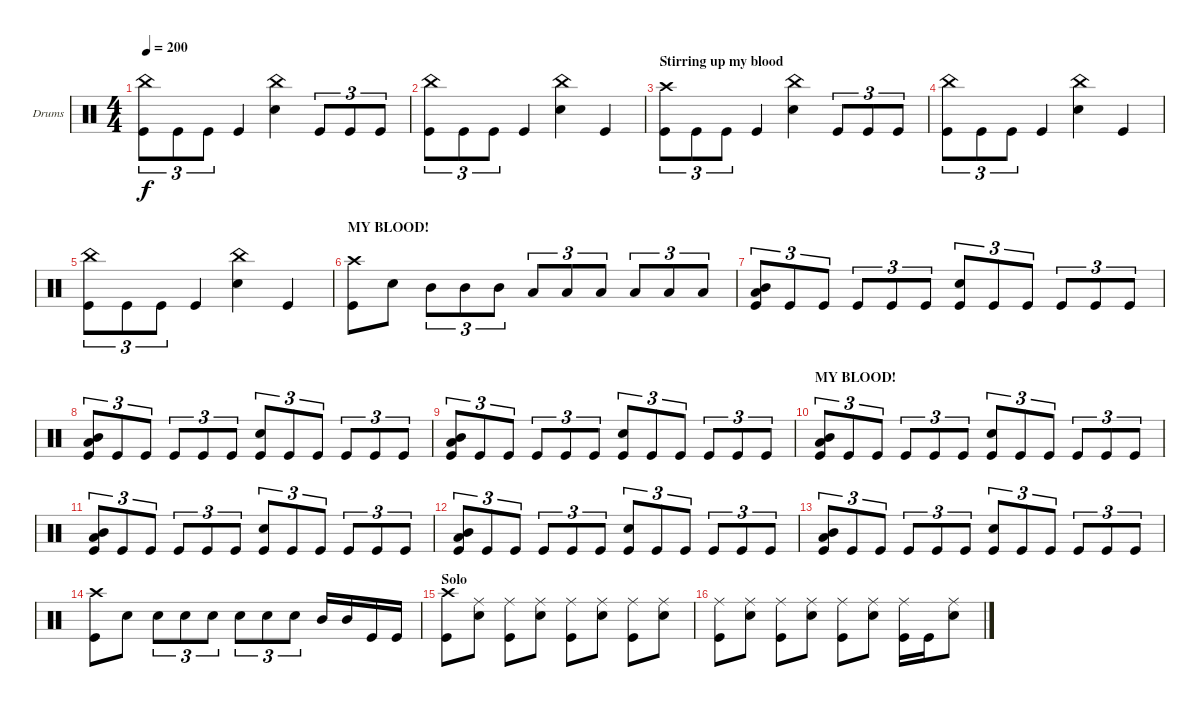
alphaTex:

\defaultSystemsLayout 4
\bracketExtendMode groupsimilarinstruments
\firstSystemTrackNameOrientation horizontal
\otherSystemsTrackNameOrientation horizontal
\track ("Markus Freiwald" "Drums") {instrument percussion}
\staff {score}
\articulation defaults
\ts (4 4)
\tempo 200
\clef neutral
\ks c
("Kick (hit)" "China (hit)").8{tu (3 2) dy f} "Kick (hit)".8{tu (3 2)} "Kick (hit)".8{tu (3 2)} "Kick (hit)".4 ("Snare (hit) 2" "China (hit)").4 "Kick (hit)".8{tu (3 2)} "Kick (hit)".8{tu (3 2)} "Kick (hit)".8{tu (3 2)} |
("Kick (hit)" "China (hit)").8{tu (3 2)} "Kick (hit)".8{tu (3 2)} "Kick (hit)".8{tu (3 2)} "Kick (hit)".4 ("Snare (hit) 2" "China (hit)").4 "Kick (hit)".4 |
\section ("" "Stirring up my blood")
("Crash high (hit)" "Kick (hit)").8{tu (3 2)} "Kick (hit)".8{tu (3 2)} "Kick (hit)".8{tu (3 2)} "Kick (hit)".4 ("Snare (hit) 2" "China (hit)").4 "Kick (hit)".8{tu (3 2)} "Kick (hit)".8{tu (3 2)} "Kick (hit)".8{tu (3 2)} |
("Kick (hit)" "China (hit)").8{tu (3 2)} "Kick (hit)".8{tu (3 2)} "Kick (hit)".8{tu (3 2)} "Kick (hit)".4 ("Snare (hit) 2" "China (hit)").4 "Kick (hit)".4 |
("Kick (hit)" "China (hit)").8{tu (3 2)} "Kick (hit)".8{tu (3 2)} "Kick (hit)".8{tu (3 2)} "Kick (hit)".4 ("Snare (hit) 2" "China (hit)").4 "Kick (hit)".4 |
\section ("" "MY BLOOD!")
("Kick (hit)" "Crash high (hit)").8 "Snare (hit) 2".8 "Mid Tom (hit)".8{tu (3 2)} "Mid Tom (hit)".8{tu (3 2)} "Mid Tom (hit)".8{tu (3 2)} "Low Tom (hit)".8{tu (3 2)} "Low Tom (hit)".8{tu (3 2)} "Low Tom (hit)".8{tu (3 2)} "Low Tom (hit)".8{tu (3 2)} "Low Tom (hit)".8{tu (3 2)} "Low Tom (hit)".8{tu (3 2)} |
("Kick (hit)" "Mid Tom (hit)" "Low Tom (hit)").8{tu (3 2)} "Kick (hit)".8{tu (3 2)} "Kick (hit)".8{tu (3 2)} "Kick (hit)".8{tu (3 2)} "Kick (hit)".8{tu (3 2)} "Kick (hit)".8{tu (3 2)} ("Kick (hit)" "Snare (hit) 2").8{tu (3 2)} "Kick (hit)".8{tu (3 2)} "Kick (hit)".8{tu (3 2)} "Kick (hit)".8{tu (3 2)} "Kick (hit)".8{tu (3 2)} "Kick (hit)".8{tu (3 2)} |
("Kick (hit)" "Mid Tom (hit)" "Low Tom (hit)").8{tu (3 2)} "Kick (hit)".8{tu (3 2)} "Kick (hit)".8{tu (3 2)} "Kick (hit)".8{tu (3 2)} "Kick (hit)".8{tu (3 2)} "Kick (hit)".8{tu (3 2)} ("Kick (hit)" "Snare (hit) 2").8{tu (3 2)} "Kick (hit)".8{tu (3 2)} "Kick (hit)".8{tu (3 2)} "Kick (hit)".8{tu (3 2)} "Kick (hit)".8{tu (3 2)} "Kick (hit)".8{tu (3 2)} |
("Kick (hit)" "Mid Tom (hit)" "Low Tom (hit)").8{tu (3 2)} "Kick (hit)".8{tu (3 2)} "Kick (hit)".8{tu (3 2)} "Kick (hit)".8{tu (3 2)} "Kick (hit)".8{tu (3 2)} "Kick (hit)".8{tu (3 2)} ("Kick (hit)" "Snare (hit) 2").8{tu (3 2)} "Kick (hit)".8{tu (3 2)} "Kick (hit)".8{tu (3 2)} "Kick (hit)".8{tu (3 2)} "Kick (hit)".8{tu (3 2)} "Kick (hit)".8{tu (3 2)} |
\section ("" "MY BLOOD!")
("Kick (hit)" "Mid Tom (hit)" "Low Tom (hit)").8{tu (3 2)} "Kick (hit)".8{tu (3 2)} "Kick (hit)".8{tu (3 2)} "Kick (hit)".8{tu (3 2)} "Kick (hit)".8{tu (3 2)} "Kick (hit)".8{tu (3 2)} ("Kick (hit)" "Snare (hit) 2").8{tu (3 2)} "Kick (hit)".8{tu (3 2)} "Kick (hit)".8{tu (3 2)} "Kick (hit)".8{tu (3 2)} "Kick (hit)".8{tu (3 2)} "Kick (hit)".8{tu (3 2)} |
("Kick (hit)" "Mid Tom (hit)" "Low Tom (hit)").8{tu (3 2)} "Kick (hit)".8{tu (3 2)} "Kick (hit)".8{tu (3 2)} "Kick (hit)".8{tu (3 2)} "Kick (hit)".8{tu (3 2)} "Kick (hit)".8{tu (3 2)} ("Kick (hit)" "Snare (hit) 2").8{tu (3 2)} "Kick (hit)".8{tu (3 2)} "Kick (hit)".8{tu (3 2)} "Kick (hit)".8{tu (3 2)} "Kick (hit)".8{tu (3 2)} "Kick (hit)".8{tu (3 2)} |
("Kick (hit)" "Mid Tom (hit)" "Low Tom (hit)").8{tu (3 2)} "Kick (hit)".8{tu (3 2)} "Kick (hit)".8{tu (3 2)} "Kick (hit)".8{tu (3 2)} "Kick (hit)".8{tu (3 2)} "Kick (hit)".8{tu (3 2)} ("Kick (hit)" "Snare (hit) 2").8{tu (3 2)} "Kick (hit)".8{tu (3 2)} "Kick (hit)".8{tu (3 2)} "Kick (hit)".8{tu (3 2)} "Kick (hit)".8{tu (3 2)} "Kick (hit)".8{tu (3 2)} |
("Kick (hit)" "Mid Tom (hit)" "Low Tom (hit)").8{tu (3 2)} "Kick (hit)".8{tu (3 2)} "Kick (hit)".8{tu (3 2)} "Kick (hit)".8{tu (3 2)} "Kick (hit)".8{tu (3 2)} "Kick (hit)".8{tu (3 2)} ("Kick (hit)" "Snare (hit) 2").8{tu (3 2)} "Kick (hit)".8{tu (3 2)} "Kick (hit)".8{tu (3 2)} "Kick (hit)".8{tu (3 2)} "Kick (hit)".8{tu (3 2)} "Kick (hit)".8{tu (3 2)} |
("Kick (hit)" "Crash high (hit)").8 "Snare (hit) 2".8 "Snare (hit) 2".8{tu (3 2)} "Snare (hit) 2".8{tu (3 2)} "Snare (hit) 2".8{tu (3 2)} "Snare (hit) 2".8{tu (3 2)} "Snare (hit) 2".8{tu (3 2)} "Snare (hit) 2".8{tu (3 2)} "Mid Tom (hit)".16 "Mid Tom (hit)".16 "Kick (hit)".16 "Kick (hit)".16 |
\section ("" "Solo")
("Crash high (hit)" "Kick (hit)").8 ("Snare (hit) 2" "Ride (middle)").8 ("Ride (middle)" "Kick (hit)").8 ("Snare (hit) 2" "Ride (middle)").8 ("Ride (middle)" "Kick (hit)").8 ("Snare (hit) 2" "Ride (middle)").8 ("Ride (middle)" "Kick (hit)").8 ("Snare (hit) 2" "Ride (middle)").8 |
("Ride (middle)" "Kick (hit)").8 ("Snare (hit) 2" "Ride (middle)").8 ("Ride (middle)" "Kick (hit)").8 ("Snare (hit) 2" "Ride (middle)").8 ("Ride (middle)" "Kick (hit)").8 ("Snare (hit) 2" "Ride (middle)").8 ("Ride (middle)" "Kick (hit)").16 "Kick (hit)".16 ("Snare (hit) 2" "Ride (middle)").8
